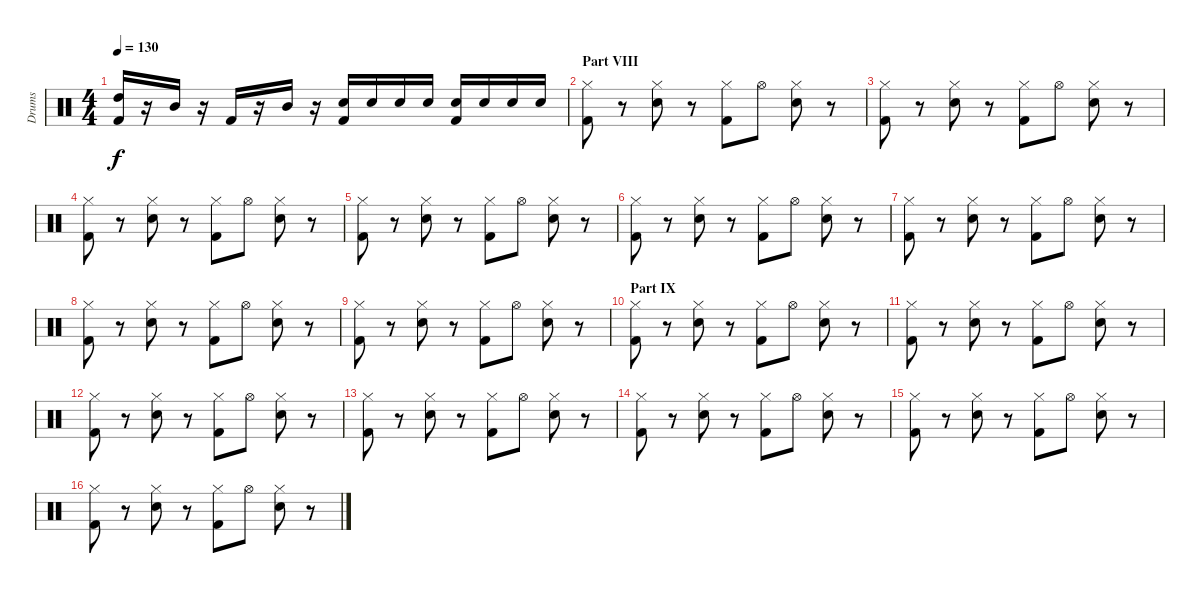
\track ("Drums" "Drums") {instrument percussion}
\staff {score}
\articulation defaults
\ts (4 4)
\tempo 130
\clef neutral
\ks c
("Kick (hit) 2" "High Tom (hit)").16{dy f} r.16 "Mid Tom (hit)".16 r.16 "Kick (hit) 2".16 r.16 "Mid Tom (hit)".16 r.16 ("Kick (hit) 2" "Snare (hit) 2").16 "Snare (hit) 2".16 "Snare (hit) 2".16 "Snare (hit) 2".16 ("Kick (hit) 2" "Snare (hit) 2").16 "Snare (hit) 2".16 "Snare (hit) 2".16 "Snare (hit) 2".16 |
\section ("" "Part VIII")
("Kick (hit) 2" "Hi-Hat (closed)").8 r.8 ("Snare (hit) 2" "Hi-Hat (closed)").8 r.8 ("Kick (hit) 2" "Hi-Hat (closed)").8 "Hi-Hat (open)".8 ("Snare (hit) 2" "Hi-Hat (closed)").8 r.8 |
("Kick (hit) 2" "Hi-Hat (closed)").8 r.8 ("Snare (hit) 2" "Hi-Hat (closed)").8 r.8 ("Kick (hit) 2" "Hi-Hat (closed)").8 "Hi-Hat (open)".8 ("Snare (hit) 2" "Hi-Hat (closed)").8 r.8 |
("Kick (hit) 2" "Hi-Hat (closed)").8 r.8 ("Snare (hit) 2" "Hi-Hat (closed)").8 r.8 ("Kick (hit) 2" "Hi-Hat (closed)").8 "Hi-Hat (open)".8 ("Snare (hit) 2" "Hi-Hat (closed)").8 r.8 |
("Kick (hit) 2" "Hi-Hat (closed)").8 r.8 ("Snare (hit) 2" "Hi-Hat (closed)").8 r.8 ("Kick (hit) 2" "Hi-Hat (closed)").8 "Hi-Hat (open)".8 ("Snare (hit) 2" "Hi-Hat (closed)").8 r.8 |
("Kick (hit) 2" "Hi-Hat (closed)").8 r.8 ("Snare (hit) 2" "Hi-Hat (closed)").8 r.8 ("Kick (hit) 2" "Hi-Hat (closed)").8 "Hi-Hat (open)".8 ("Snare (hit) 2" "Hi-Hat (closed)").8 r.8 |
("Kick (hit) 2" "Hi-Hat (closed)").8 r.8 ("Snare (hit) 2" "Hi-Hat (closed)").8 r.8 ("Kick (hit) 2" "Hi-Hat (closed)").8 "Hi-Hat (open)".8 ("Snare (hit) 2" "Hi-Hat (closed)").8 r.8 |
("Kick (hit) 2" "Hi-Hat (closed)").8 r.8 ("Snare (hit) 2" "Hi-Hat (closed)").8 r.8 ("Kick (hit) 2" "Hi-Hat (closed)").8 "Hi-Hat (open)".8 ("Snare (hit) 2" "Hi-Hat (closed)").8 r.8 |
("Kick (hit) 2" "Hi-Hat (closed)").8 r.8 ("Snare (hit) 2" "Hi-Hat (closed)").8 r.8 ("Kick (hit) 2" "Hi-Hat (closed)").8 "Hi-Hat (open)".8 ("Snare (hit) 2" "Hi-Hat (closed)").8 r.8 |
\section ("" "Part IX")
("Kick (hit) 2" "Hi-Hat (closed)").8 r.8 ("Snare (hit) 2" "Hi-Hat (closed)").8 r.8 ("Kick (hit) 2" "Hi-Hat (closed)").8 "Hi-Hat (open)".8 ("Snare (hit) 2" "Hi-Hat (closed)").8 r.8 |
("Kick (hit) 2" "Hi-Hat (closed)").8 r.8 ("Snare (hit) 2" "Hi-Hat (closed)").8 r.8 ("Kick (hit) 2" "Hi-Hat (closed)").8 "Hi-Hat (open)".8 ("Snare (hit) 2" "Hi-Hat (closed)").8 r.8 |
("Kick (hit) 2" "Hi-Hat (closed)").8 r.8 ("Snare (hit) 2" "Hi-Hat (closed)").8 r.8 ("Kick (hit) 2" "Hi-Hat (closed)").8 "Hi-Hat (open)".8 ("Snare (hit) 2" "Hi-Hat (closed)").8 r.8 |
("Kick (hit) 2" "Hi-Hat (closed)").8 r.8 ("Snare (hit) 2" "Hi-Hat (closed)").8 r.8 ("Kick (hit) 2" "Hi-Hat (closed)").8 "Hi-Hat (open)".8 ("Snare (hit) 2" "Hi-Hat (closed)").8 r.8 |
("Kick (hit) 2" "Hi-Hat (closed)").8 r.8 ("Snare (hit) 2" "Hi-Hat (closed)").8 r.8 ("Kick (hit) 2" "Hi-Hat (closed)").8 "Hi-Hat (open)".8 ("Snare (hit) 2" "Hi-Hat (closed)").8 r.8 |
("Kick (hit) 2" "Hi-Hat (closed)").8 r.8 ("Snare (hit) 2" "Hi-Hat (closed)").8 r.8 ("Kick (hit) 2" "Hi-Hat (closed)").8 "Hi-Hat (open)".8 ("Snare (hit) 2" "Hi-Hat (closed)").8 r.8 |
("Kick (hit) 2" "Hi-Hat (closed)").8 r.8 ("Snare (hit) 2" "Hi-Hat (closed)").8 r.8 ("Kick (hit) 2" "Hi-Hat (closed)").8 "Hi-Hat (open)".8 ("Snare (hit) 2" "Hi-Hat (closed)").8 r.8
